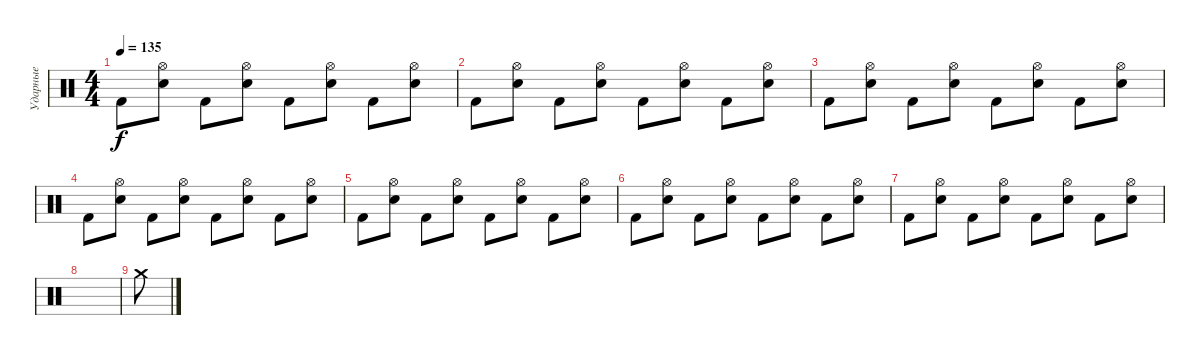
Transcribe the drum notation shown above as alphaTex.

\track ("Ударные" "Ударные") {instrument percussion}
\staff {score}
\articulation defaults
\ts (4 4)
\tempo 135
\clef neutral
\ks c "Kick (hit) 2".8{dy f}
("Snare (hit) 2" "Hi-Hat (open)").8 "Kick (hit) 2".8 ("Snare (hit) 2" "Hi-Hat (open)").8 "Kick (hit) 2".8 ("Snare (hit) 2" "Hi-Hat (open)").8 "Kick (hit) 2".8 ("Snare (hit) 2" "Hi-Hat (open)").8 |
"Kick (hit) 2".8 ("Snare (hit) 2" "Hi-Hat (open)").8 "Kick (hit) 2".8 ("Snare (hit) 2" "Hi-Hat (open)").8 "Kick (hit) 2".8 ("Snare (hit) 2" "Hi-Hat (open)").8 "Kick (hit) 2".8 ("Snare (hit) 2" "Hi-Hat (open)").8 |
"Kick (hit) 2".8 ("Snare (hit) 2" "Hi-Hat (open)").8 "Kick (hit) 2".8 ("Snare (hit) 2" "Hi-Hat (open)").8 "Kick (hit) 2".8 ("Snare (hit) 2" "Hi-Hat (open)").8 "Kick (hit) 2".8 ("Snare (hit) 2" "Hi-Hat (open)").8 |
"Kick (hit) 2".8 ("Snare (hit) 2" "Hi-Hat (open)").8 "Kick (hit) 2".8 ("Snare (hit) 2" "Hi-Hat (open)").8 "Kick (hit) 2".8 ("Snare (hit) 2" "Hi-Hat (open)").8 "Kick (hit) 2".8 ("Snare (hit) 2" "Hi-Hat (open)").8 |
"Kick (hit) 2".8 ("Snare (hit) 2" "Hi-Hat (open)").8 "Kick (hit) 2".8 ("Snare (hit) 2" "Hi-Hat (open)").8 "Kick (hit) 2".8 ("Snare (hit) 2" "Hi-Hat (open)").8 "Kick (hit) 2".8 ("Snare (hit) 2" "Hi-Hat (open)").8 |
"Kick (hit) 2".8 ("Snare (hit) 2" "Hi-Hat (open)").8 "Kick (hit) 2".8 ("Snare (hit) 2" "Hi-Hat (open)").8 "Kick (hit) 2".8 ("Snare (hit) 2" "Hi-Hat (open)").8 "Kick (hit) 2".8 ("Snare (hit) 2" "Hi-Hat (open)").8 |
"Kick (hit) 2".8 ("Snare (hit) 2" "Hi-Hat (open)").8 "Kick (hit) 2".8 ("Snare (hit) 2" "Hi-Hat (open)").8 "Kick (hit) 2".8 ("Snare (hit) 2" "Hi-Hat (open)").8 "Kick (hit) 2".8 ("Snare (hit) 2" "Hi-Hat (open)").8 |
|
"Crash medium (hit)".8
